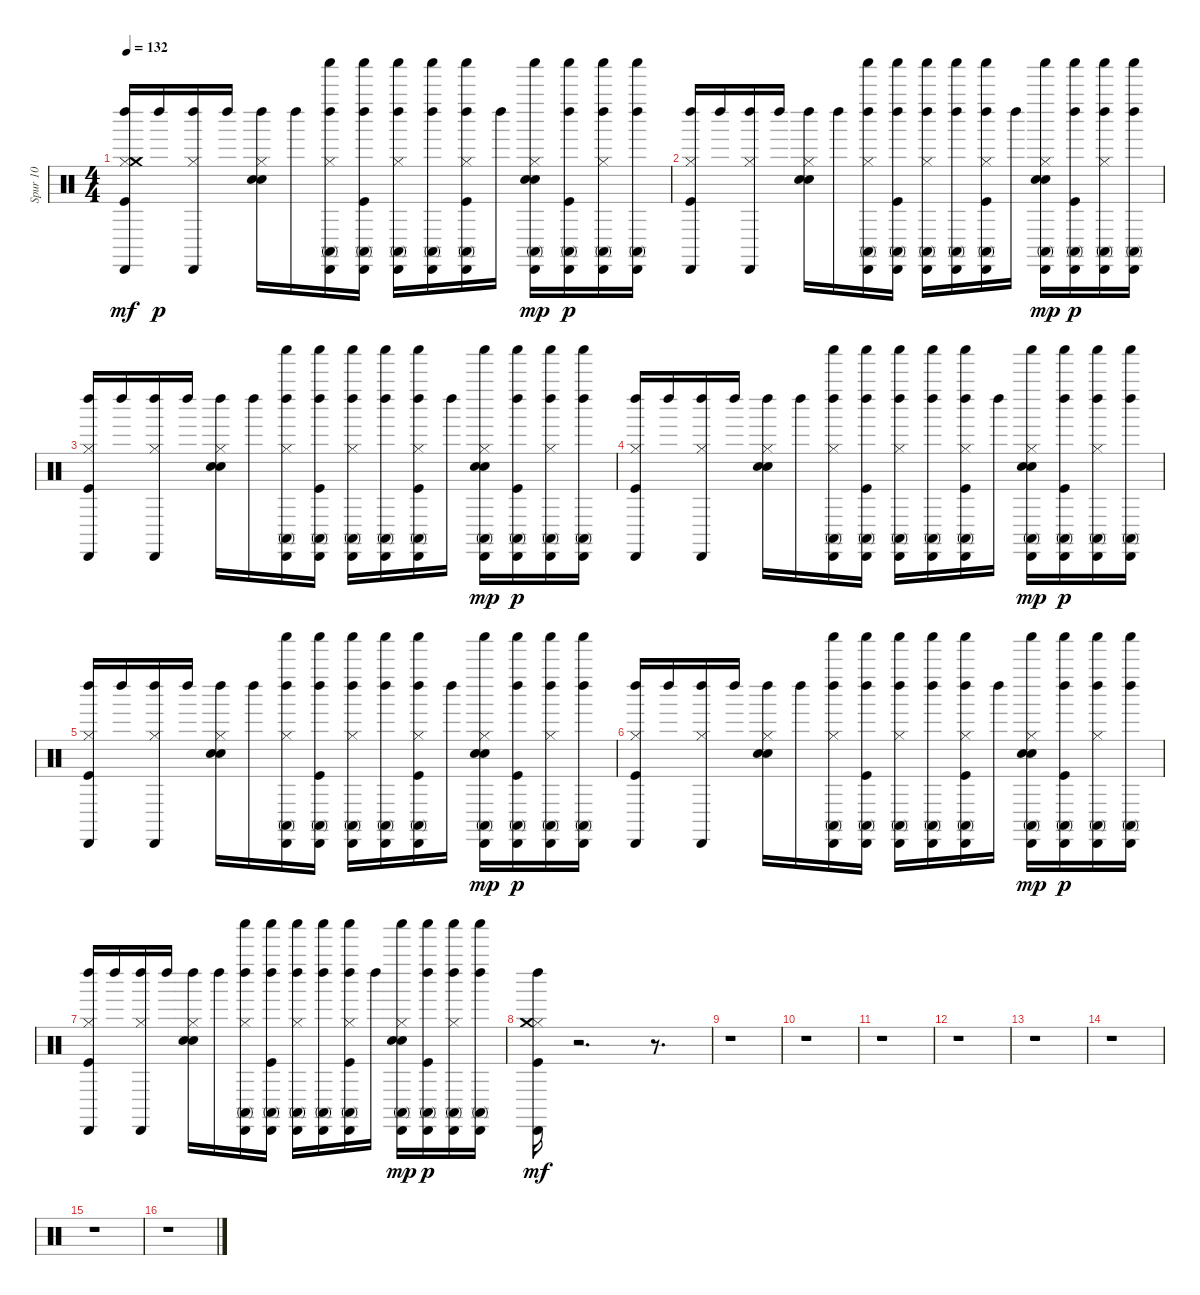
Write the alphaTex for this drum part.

\track ("Spur 10" "Spur 10") {instrument percussion}
\staff {score}
\articulation defaults
\ts (4 4)
\tempo 132
\clef neutral
\ks c
("Kick (hit)" "Hi-Hat (closed)" "Left Maraca (hit)" "Cabasa (hit)" "Crash medium (hit)").16{dy mf} "Left Maraca (hit)".16{dy p} ("Hi-Hat (closed)" "Left Maraca (hit)" "Cabasa (hit)").16 "Left Maraca (hit)".16 ("Hi-Hat (closed)" "Snare (hit) 2" "Hand Clap (hit)" "Left Maraca (hit)").16 "Left Maraca (hit)".16 ("Shaker (hit)" "Hi-Hat (closed)" "Cabasa (hit)" "Conga high (mute)" "Left Maraca (hit)").16 ("Shaker (hit)" "Kick (hit)" "Cabasa (hit)" "Conga high (mute)" "Left Maraca (hit)").16 ("Shaker (hit)" "Hi-Hat (closed)" "Cabasa (hit)" "Conga high (mute)" "Left Maraca (hit)").16 ("Shaker (hit)" "Cabasa (hit)" "Conga high (mute)" "Left Maraca (hit)").16 ("Shaker (hit)" "Kick (hit)" "Hi-Hat (closed)" "Cabasa (hit)" "Conga high (mute)" "Left Maraca (hit)").16 "Left Maraca (hit)".16 ("Shaker (hit)" "Hi-Hat (closed)" "Snare (hit) 2" "Cabasa (hit)" "Conga high (mute)" "Hand Clap (hit)").16{dy mp} ("Shaker (hit)" "Kick (hit)" "Cabasa (hit)" "Conga high (mute)" "Left Maraca (hit)").16{dy p} ("Shaker (hit)" "Hi-Hat (closed)" "Cabasa (hit)" "Conga high (mute)" "Left Maraca (hit)").16 ("Shaker (hit)" "Cabasa (hit)" "Conga high (mute)" "Left Maraca (hit)").16 |
("Kick (hit)" "Hi-Hat (closed)" "Cabasa (hit)" "Left Maraca (hit)").16 "Left Maraca (hit)".16 ("Hi-Hat (closed)" "Cabasa (hit)" "Left Maraca (hit)").16 "Left Maraca (hit)".16 ("Hi-Hat (closed)" "Snare (hit) 2" "Hand Clap (hit)" "Left Maraca (hit)").16 "Left Maraca (hit)".16 ("Shaker (hit)" "Hi-Hat (closed)" "Conga high (mute)" "Cabasa (hit)" "Left Maraca (hit)").16 ("Shaker (hit)" "Kick (hit)" "Conga high (mute)" "Cabasa (hit)" "Left Maraca (hit)").16 ("Shaker (hit)" "Hi-Hat (closed)" "Conga high (mute)" "Cabasa (hit)" "Left Maraca (hit)").16 ("Shaker (hit)" "Conga high (mute)" "Cabasa (hit)" "Left Maraca (hit)").16 ("Shaker (hit)" "Kick (hit)" "Hi-Hat (closed)" "Conga high (mute)" "Cabasa (hit)" "Left Maraca (hit)").16 "Left Maraca (hit)".16 ("Shaker (hit)" "Hi-Hat (closed)" "Snare (hit) 2" "Conga high (mute)" "Cabasa (hit)" "Hand Clap (hit)").16{dy mp} ("Shaker (hit)" "Kick (hit)" "Conga high (mute)" "Cabasa (hit)" "Left Maraca (hit)").16{dy p} ("Shaker (hit)" "Hi-Hat (closed)" "Conga high (mute)" "Cabasa (hit)" "Left Maraca (hit)").16 ("Shaker (hit)" "Conga high (mute)" "Cabasa (hit)" "Left Maraca (hit)").16 |
("Kick (hit)" "Hi-Hat (closed)" "Cabasa (hit)" "Left Maraca (hit)").16 "Left Maraca (hit)".16 ("Hi-Hat (closed)" "Cabasa (hit)" "Left Maraca (hit)").16 "Left Maraca (hit)".16 ("Hi-Hat (closed)" "Snare (hit) 2" "Hand Clap (hit)" "Left Maraca (hit)").16 "Left Maraca (hit)".16 ("Shaker (hit)" "Hi-Hat (closed)" "Conga high (mute)" "Cabasa (hit)" "Left Maraca (hit)").16 ("Shaker (hit)" "Kick (hit)" "Conga high (mute)" "Cabasa (hit)" "Left Maraca (hit)").16 ("Shaker (hit)" "Hi-Hat (closed)" "Conga high (mute)" "Cabasa (hit)" "Left Maraca (hit)").16 ("Shaker (hit)" "Conga high (mute)" "Cabasa (hit)" "Left Maraca (hit)").16 ("Shaker (hit)" "Kick (hit)" "Hi-Hat (closed)" "Conga high (mute)" "Cabasa (hit)" "Left Maraca (hit)").16 "Left Maraca (hit)".16 ("Shaker (hit)" "Hi-Hat (closed)" "Snare (hit) 2" "Conga high (mute)" "Cabasa (hit)" "Hand Clap (hit)").16{dy mp} ("Shaker (hit)" "Kick (hit)" "Conga high (mute)" "Cabasa (hit)" "Left Maraca (hit)").16{dy p} ("Shaker (hit)" "Hi-Hat (closed)" "Conga high (mute)" "Cabasa (hit)" "Left Maraca (hit)").16 ("Shaker (hit)" "Conga high (mute)" "Cabasa (hit)" "Left Maraca (hit)").16 |
("Kick (hit)" "Hi-Hat (closed)" "Cabasa (hit)" "Left Maraca (hit)").16 "Left Maraca (hit)".16 ("Hi-Hat (closed)" "Cabasa (hit)" "Left Maraca (hit)").16 "Left Maraca (hit)".16 ("Hi-Hat (closed)" "Snare (hit) 2" "Hand Clap (hit)" "Left Maraca (hit)").16 "Left Maraca (hit)".16 ("Shaker (hit)" "Hi-Hat (closed)" "Conga high (mute)" "Cabasa (hit)" "Left Maraca (hit)").16 ("Shaker (hit)" "Kick (hit)" "Conga high (mute)" "Cabasa (hit)" "Left Maraca (hit)").16 ("Shaker (hit)" "Hi-Hat (closed)" "Conga high (mute)" "Cabasa (hit)" "Left Maraca (hit)").16 ("Shaker (hit)" "Conga high (mute)" "Cabasa (hit)" "Left Maraca (hit)").16 ("Shaker (hit)" "Kick (hit)" "Hi-Hat (closed)" "Conga high (mute)" "Cabasa (hit)" "Left Maraca (hit)").16 "Left Maraca (hit)".16 ("Shaker (hit)" "Hi-Hat (closed)" "Snare (hit) 2" "Conga high (mute)" "Cabasa (hit)" "Hand Clap (hit)").16{dy mp} ("Shaker (hit)" "Kick (hit)" "Conga high (mute)" "Cabasa (hit)" "Left Maraca (hit)").16{dy p} ("Shaker (hit)" "Hi-Hat (closed)" "Conga high (mute)" "Cabasa (hit)" "Left Maraca (hit)").16 ("Shaker (hit)" "Conga high (mute)" "Cabasa (hit)" "Left Maraca (hit)").16 |
("Kick (hit)" "Hi-Hat (closed)" "Left Maraca (hit)" "Cabasa (hit)").16 "Left Maraca (hit)".16 ("Hi-Hat (closed)" "Left Maraca (hit)" "Cabasa (hit)").16 "Left Maraca (hit)".16 ("Hi-Hat (closed)" "Snare (hit) 2" "Hand Clap (hit)" "Left Maraca (hit)").16 "Left Maraca (hit)".16 ("Shaker (hit)" "Hi-Hat (closed)" "Conga high (mute)" "Cabasa (hit)" "Left Maraca (hit)").16 ("Shaker (hit)" "Kick (hit)" "Conga high (mute)" "Cabasa (hit)" "Left Maraca (hit)").16 ("Shaker (hit)" "Hi-Hat (closed)" "Conga high (mute)" "Cabasa (hit)" "Left Maraca (hit)").16 ("Shaker (hit)" "Conga high (mute)" "Cabasa (hit)" "Left Maraca (hit)").16 ("Shaker (hit)" "Kick (hit)" "Hi-Hat (closed)" "Conga high (mute)" "Cabasa (hit)" "Left Maraca (hit)").16 "Left Maraca (hit)".16 ("Shaker (hit)" "Hi-Hat (closed)" "Snare (hit) 2" "Conga high (mute)" "Cabasa (hit)" "Hand Clap (hit)").16{dy mp} ("Shaker (hit)" "Kick (hit)" "Conga high (mute)" "Cabasa (hit)" "Left Maraca (hit)").16{dy p} ("Shaker (hit)" "Hi-Hat (closed)" "Conga high (mute)" "Cabasa (hit)" "Left Maraca (hit)").16 ("Shaker (hit)" "Conga high (mute)" "Cabasa (hit)" "Left Maraca (hit)").16 |
("Kick (hit)" "Hi-Hat (closed)" "Cabasa (hit)" "Left Maraca (hit)").16 "Left Maraca (hit)".16 ("Hi-Hat (closed)" "Cabasa (hit)" "Left Maraca (hit)").16 "Left Maraca (hit)".16 ("Hi-Hat (closed)" "Snare (hit) 2" "Hand Clap (hit)" "Left Maraca (hit)").16 "Left Maraca (hit)".16 ("Shaker (hit)" "Hi-Hat (closed)" "Cabasa (hit)" "Conga high (mute)" "Left Maraca (hit)").16 ("Shaker (hit)" "Kick (hit)" "Cabasa (hit)" "Conga high (mute)" "Left Maraca (hit)").16 ("Shaker (hit)" "Hi-Hat (closed)" "Cabasa (hit)" "Conga high (mute)" "Left Maraca (hit)").16 ("Shaker (hit)" "Cabasa (hit)" "Conga high (mute)" "Left Maraca (hit)").16 ("Shaker (hit)" "Kick (hit)" "Hi-Hat (closed)" "Cabasa (hit)" "Conga high (mute)" "Left Maraca (hit)").16 "Left Maraca (hit)".16 ("Shaker (hit)" "Hi-Hat (closed)" "Snare (hit) 2" "Cabasa (hit)" "Conga high (mute)" "Hand Clap (hit)").16{dy mp} ("Shaker (hit)" "Kick (hit)" "Cabasa (hit)" "Conga high (mute)" "Left Maraca (hit)").16{dy p} ("Shaker (hit)" "Hi-Hat (closed)" "Cabasa (hit)" "Conga high (mute)" "Left Maraca (hit)").16 ("Shaker (hit)" "Cabasa (hit)" "Conga high (mute)" "Left Maraca (hit)").16 |
("Kick (hit)" "Hi-Hat (closed)" "Cabasa (hit)" "Left Maraca (hit)").16 "Left Maraca (hit)".16 ("Hi-Hat (closed)" "Cabasa (hit)" "Left Maraca (hit)").16 "Left Maraca (hit)".16 ("Hi-Hat (closed)" "Snare (hit) 2" "Hand Clap (hit)" "Left Maraca (hit)").16 "Left Maraca (hit)".16 ("Shaker (hit)" "Hi-Hat (closed)" "Conga high (mute)" "Cabasa (hit)" "Left Maraca (hit)").16 ("Shaker (hit)" "Kick (hit)" "Conga high (mute)" "Cabasa (hit)" "Left Maraca (hit)").16 ("Shaker (hit)" "Hi-Hat (closed)" "Conga high (mute)" "Cabasa (hit)" "Left Maraca (hit)").16 ("Shaker (hit)" "Conga high (mute)" "Cabasa (hit)" "Left Maraca (hit)").16 ("Shaker (hit)" "Kick (hit)" "Hi-Hat (closed)" "Conga high (mute)" "Cabasa (hit)" "Left Maraca (hit)").16 "Left Maraca (hit)".16 ("Shaker (hit)" "Hi-Hat (closed)" "Snare (hit) 2" "Conga high (mute)" "Cabasa (hit)" "Hand Clap (hit)").16{dy mp} ("Shaker (hit)" "Kick (hit)" "Conga high (mute)" "Cabasa (hit)" "Left Maraca (hit)").16{dy p} ("Shaker (hit)" "Hi-Hat (closed)" "Conga high (mute)" "Cabasa (hit)" "Left Maraca (hit)").16 ("Shaker (hit)" "Conga high (mute)" "Cabasa (hit)" "Left Maraca (hit)").16 |
("Kick (hit)" "Hi-Hat (closed)" "Left Maraca (hit)" "Cabasa (hit)" "Crash medium (hit)").16{dy mf} r.2{d} r.8{d} |
r.1 |
r.1 |
r.1 |
r.1 |
r.1 |
r.1 |
r.1 |
r.1
